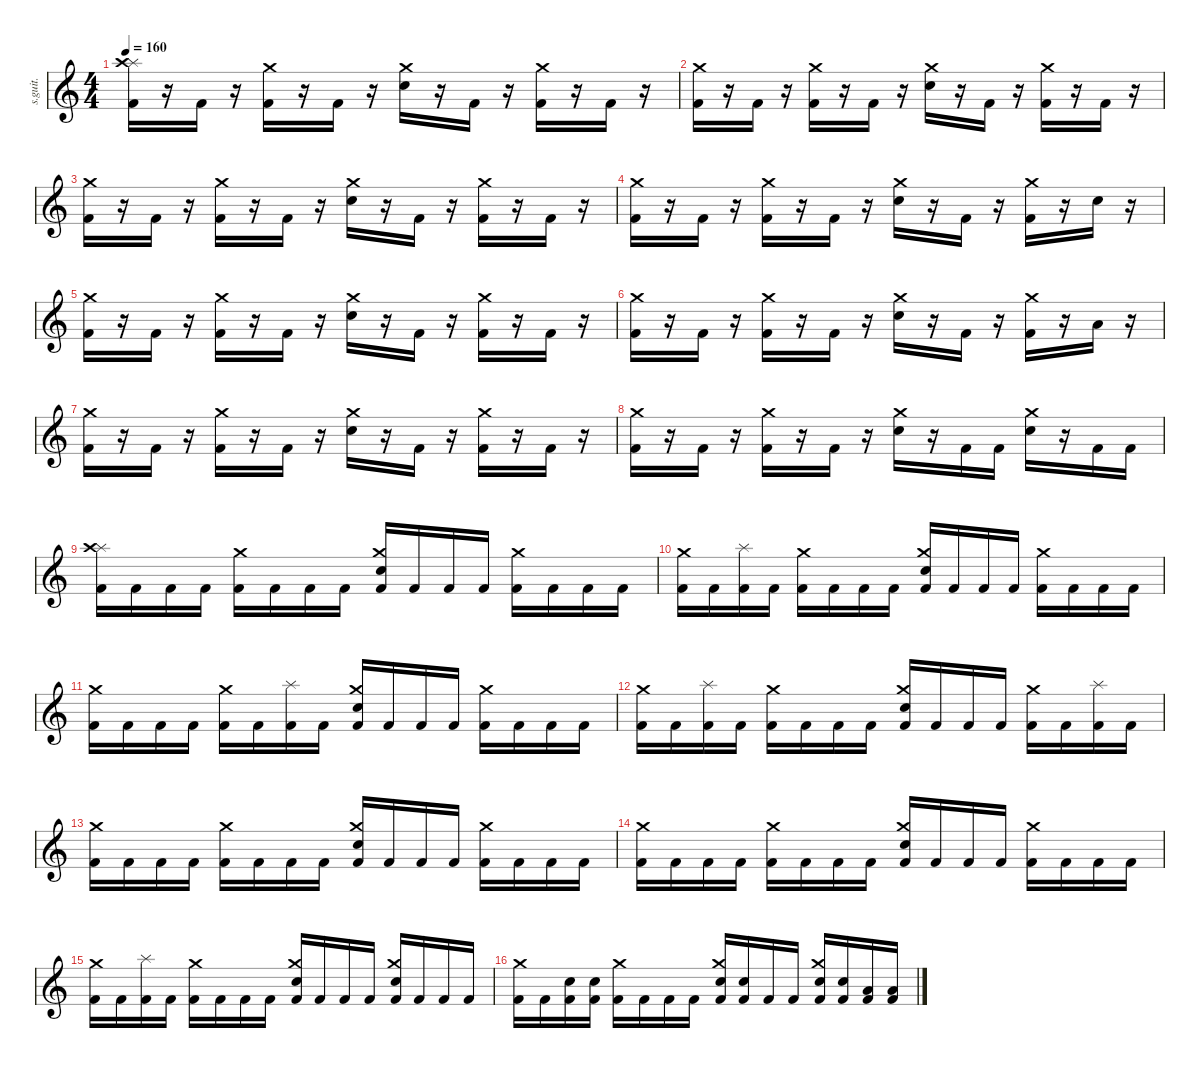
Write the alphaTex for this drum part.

\defaultSystemsLayout 4
\hideDynamics
\bracketExtendMode nobrackets
\track ("Drumkit" "s.guit.") {instrument percussion}
\staff {score}
\articulation defaults
\ts (4 4)
\tempo 160
\clef g2
\ks c
("Splash (hit)" "Crash high (hit)" "Kick (hit) 2").16{lyrics (0 "") lyrics (1 "") lyrics (2 "") lyrics (3 "") lyrics (4 "") dy f} r.16 "Kick (hit) 2".16{lyrics (0 "") lyrics (1 "") lyrics (2 "") lyrics (3 "") lyrics (4 "")} r.16 ("Crash medium (hit)" "Kick (hit) 2").16{lyrics (0 "") lyrics (1 "") lyrics (2 "") lyrics (3 "") lyrics (4 "")} r.16 "Kick (hit) 2".16{lyrics (0 "") lyrics (1 "") lyrics (2 "") lyrics (3 "") lyrics (4 "")} r.16 ("Crash medium (hit)" "Electric Snare (hit)").16{lyrics (0 "") lyrics (1 "") lyrics (2 "") lyrics (3 "") lyrics (4 "")} r.16 "Kick (hit) 2".16{lyrics (0 "") lyrics (1 "") lyrics (2 "") lyrics (3 "") lyrics (4 "")} r.16 ("Crash medium (hit)" "Kick (hit) 2").16{lyrics (0 "") lyrics (1 "") lyrics (2 "") lyrics (3 "") lyrics (4 "")} r.16 "Kick (hit) 2".16{lyrics (0 "") lyrics (1 "") lyrics (2 "") lyrics (3 "") lyrics (4 "")} r.16 |
("Crash medium (hit)" "Kick (hit) 2").16{lyrics (0 "") lyrics (1 "") lyrics (2 "") lyrics (3 "") lyrics (4 "")} r.16 "Kick (hit) 2".16{lyrics (0 "") lyrics (1 "") lyrics (2 "") lyrics (3 "") lyrics (4 "")} r.16 ("Crash medium (hit)" "Kick (hit) 2").16{lyrics (0 "") lyrics (1 "") lyrics (2 "") lyrics (3 "") lyrics (4 "")} r.16 "Kick (hit) 2".16{lyrics (0 "") lyrics (1 "") lyrics (2 "") lyrics (3 "") lyrics (4 "")} r.16 ("Crash medium (hit)" "Electric Snare (hit)").16{lyrics (0 "") lyrics (1 "") lyrics (2 "") lyrics (3 "") lyrics (4 "")} r.16 "Kick (hit) 2".16{lyrics (0 "") lyrics (1 "") lyrics (2 "") lyrics (3 "") lyrics (4 "")} r.16 ("Crash medium (hit)" "Kick (hit) 2").16{lyrics (0 "") lyrics (1 "") lyrics (2 "") lyrics (3 "") lyrics (4 "")} r.16 "Kick (hit) 2".16{lyrics (0 "") lyrics (1 "") lyrics (2 "") lyrics (3 "") lyrics (4 "")} r.16 |
("Crash medium (hit)" "Kick (hit) 2").16{lyrics (0 "") lyrics (1 "") lyrics (2 "") lyrics (3 "") lyrics (4 "")} r.16 "Kick (hit) 2".16{lyrics (0 "") lyrics (1 "") lyrics (2 "") lyrics (3 "") lyrics (4 "")} r.16 ("Crash medium (hit)" "Kick (hit) 2").16{lyrics (0 "") lyrics (1 "") lyrics (2 "") lyrics (3 "") lyrics (4 "")} r.16 "Kick (hit) 2".16{lyrics (0 "") lyrics (1 "") lyrics (2 "") lyrics (3 "") lyrics (4 "")} r.16 ("Crash medium (hit)" "Electric Snare (hit)").16{lyrics (0 "") lyrics (1 "") lyrics (2 "") lyrics (3 "") lyrics (4 "")} r.16 "Kick (hit) 2".16{lyrics (0 "") lyrics (1 "") lyrics (2 "") lyrics (3 "") lyrics (4 "")} r.16 ("Crash medium (hit)" "Kick (hit) 2").16{lyrics (0 "") lyrics (1 "") lyrics (2 "") lyrics (3 "") lyrics (4 "")} r.16 "Kick (hit) 2".16{lyrics (0 "") lyrics (1 "") lyrics (2 "") lyrics (3 "") lyrics (4 "")} r.16 |
("Crash medium (hit)" "Kick (hit) 2").16{lyrics (0 "") lyrics (1 "") lyrics (2 "") lyrics (3 "") lyrics (4 "")} r.16 "Kick (hit) 2".16{lyrics (0 "") lyrics (1 "") lyrics (2 "") lyrics (3 "") lyrics (4 "")} r.16 ("Crash medium (hit)" "Kick (hit) 2").16{lyrics (0 "") lyrics (1 "") lyrics (2 "") lyrics (3 "") lyrics (4 "")} r.16 "Kick (hit) 2".16{lyrics (0 "") lyrics (1 "") lyrics (2 "") lyrics (3 "") lyrics (4 "")} r.16 ("Crash medium (hit)" "Electric Snare (hit)").16{lyrics (0 "") lyrics (1 "") lyrics (2 "") lyrics (3 "") lyrics (4 "")} r.16 "Kick (hit) 2".16{lyrics (0 "") lyrics (1 "") lyrics (2 "") lyrics (3 "") lyrics (4 "")} r.16 ("Crash medium (hit)" "Kick (hit) 2").16{lyrics (0 "") lyrics (1 "") lyrics (2 "") lyrics (3 "") lyrics (4 "")} r.16 "Electric Snare (hit)".16{lyrics (0 "") lyrics (1 "") lyrics (2 "") lyrics (3 "") lyrics (4 "")} r.16 |
("Crash medium (hit)" "Kick (hit) 2").16{lyrics (0 "") lyrics (1 "") lyrics (2 "") lyrics (3 "") lyrics (4 "")} r.16 "Kick (hit) 2".16{lyrics (0 "") lyrics (1 "") lyrics (2 "") lyrics (3 "") lyrics (4 "")} r.16 ("Crash medium (hit)" "Kick (hit) 2").16{lyrics (0 "") lyrics (1 "") lyrics (2 "") lyrics (3 "") lyrics (4 "")} r.16 "Kick (hit) 2".16{lyrics (0 "") lyrics (1 "") lyrics (2 "") lyrics (3 "") lyrics (4 "")} r.16 ("Crash medium (hit)" "Electric Snare (hit)").16{lyrics (0 "") lyrics (1 "") lyrics (2 "") lyrics (3 "") lyrics (4 "")} r.16 "Kick (hit) 2".16{lyrics (0 "") lyrics (1 "") lyrics (2 "") lyrics (3 "") lyrics (4 "")} r.16 ("Crash medium (hit)" "Kick (hit) 2").16{lyrics (0 "") lyrics (1 "") lyrics (2 "") lyrics (3 "") lyrics (4 "")} r.16 "Kick (hit) 2".16{lyrics (0 "") lyrics (1 "") lyrics (2 "") lyrics (3 "") lyrics (4 "")} r.16 |
("Crash medium (hit)" "Kick (hit) 2").16{lyrics (0 "") lyrics (1 "") lyrics (2 "") lyrics (3 "") lyrics (4 "")} r.16 "Kick (hit) 2".16{lyrics (0 "") lyrics (1 "") lyrics (2 "") lyrics (3 "") lyrics (4 "")} r.16 ("Crash medium (hit)" "Kick (hit) 2").16{lyrics (0 "") lyrics (1 "") lyrics (2 "") lyrics (3 "") lyrics (4 "")} r.16 "Kick (hit) 2".16{lyrics (0 "") lyrics (1 "") lyrics (2 "") lyrics (3 "") lyrics (4 "")} r.16 ("Crash medium (hit)" "Electric Snare (hit)").16{lyrics (0 "") lyrics (1 "") lyrics (2 "") lyrics (3 "") lyrics (4 "")} r.16 "Kick (hit) 2".16{lyrics (0 "") lyrics (1 "") lyrics (2 "") lyrics (3 "") lyrics (4 "")} r.16 ("Crash medium (hit)" "Kick (hit) 2").16{lyrics (0 "") lyrics (1 "") lyrics (2 "") lyrics (3 "") lyrics (4 "")} r.16 "Low Floor Tom (hit)".16{lyrics (0 "") lyrics (1 "") lyrics (2 "") lyrics (3 "") lyrics (4 "")} r.16 |
("Crash medium (hit)" "Kick (hit) 2").16{lyrics (0 "") lyrics (1 "") lyrics (2 "") lyrics (3 "") lyrics (4 "")} r.16 "Kick (hit) 2".16{lyrics (0 "") lyrics (1 "") lyrics (2 "") lyrics (3 "") lyrics (4 "")} r.16 ("Crash medium (hit)" "Kick (hit) 2").16{lyrics (0 "") lyrics (1 "") lyrics (2 "") lyrics (3 "") lyrics (4 "")} r.16 "Kick (hit) 2".16{lyrics (0 "") lyrics (1 "") lyrics (2 "") lyrics (3 "") lyrics (4 "")} r.16 ("Crash medium (hit)" "Electric Snare (hit)").16{lyrics (0 "") lyrics (1 "") lyrics (2 "") lyrics (3 "") lyrics (4 "")} r.16 "Kick (hit) 2".16{lyrics (0 "") lyrics (1 "") lyrics (2 "") lyrics (3 "") lyrics (4 "")} r.16 ("Crash medium (hit)" "Kick (hit) 2").16{lyrics (0 "") lyrics (1 "") lyrics (2 "") lyrics (3 "") lyrics (4 "")} r.16 "Kick (hit) 2".16{lyrics (0 "") lyrics (1 "") lyrics (2 "") lyrics (3 "") lyrics (4 "")} r.16 |
("Crash medium (hit)" "Kick (hit) 2").16{lyrics (0 "") lyrics (1 "") lyrics (2 "") lyrics (3 "") lyrics (4 "")} r.16 "Kick (hit) 2".16{lyrics (0 "") lyrics (1 "") lyrics (2 "") lyrics (3 "") lyrics (4 "")} r.16 ("Crash medium (hit)" "Kick (hit) 2").16{lyrics (0 "") lyrics (1 "") lyrics (2 "") lyrics (3 "") lyrics (4 "")} r.16 "Kick (hit) 2".16{lyrics (0 "") lyrics (1 "") lyrics (2 "") lyrics (3 "") lyrics (4 "")} r.16 ("Crash medium (hit)" "Electric Snare (hit)").16{lyrics (0 "") lyrics (1 "") lyrics (2 "") lyrics (3 "") lyrics (4 "")} r.16 "Kick (hit) 2".16{lyrics (0 "") lyrics (1 "") lyrics (2 "") lyrics (3 "") lyrics (4 "")} "Kick (hit) 2".16{lyrics (0 "") lyrics (1 "") lyrics (2 "") lyrics (3 "") lyrics (4 "")} ("Crash medium (hit)" "Electric Snare (hit)").16{lyrics (0 "") lyrics (1 "") lyrics (2 "") lyrics (3 "") lyrics (4 "")} r.16 "Kick (hit) 2".16{lyrics (0 "") lyrics (1 "") lyrics (2 "") lyrics (3 "") lyrics (4 "")} "Kick (hit) 2".16{lyrics (0 "") lyrics (1 "") lyrics (2 "") lyrics (3 "") lyrics (4 "")} |
("Splash (hit)" "Crash high (hit)" "Kick (hit) 2").16{lyrics (0 "") lyrics (1 "") lyrics (2 "") lyrics (3 "") lyrics (4 "")} "Kick (hit) 2".16{lyrics (0 "") lyrics (1 "") lyrics (2 "") lyrics (3 "") lyrics (4 "")} "Kick (hit) 2".16{lyrics (0 "") lyrics (1 "") lyrics (2 "") lyrics (3 "") lyrics (4 "")} "Kick (hit) 2".16{lyrics (0 "") lyrics (1 "") lyrics (2 "") lyrics (3 "") lyrics (4 "")} ("Crash medium (hit)" "Kick (hit) 2").16{lyrics (0 "") lyrics (1 "") lyrics (2 "") lyrics (3 "") lyrics (4 "")} "Kick (hit) 2".16{lyrics (0 "") lyrics (1 "") lyrics (2 "") lyrics (3 "") lyrics (4 "")} "Kick (hit) 2".16{lyrics (0 "") lyrics (1 "") lyrics (2 "") lyrics (3 "") lyrics (4 "")} "Kick (hit) 2".16{lyrics (0 "") lyrics (1 "") lyrics (2 "") lyrics (3 "") lyrics (4 "")} ("Crash medium (hit)" "Electric Snare (hit)" "Kick (hit) 2").16{lyrics (0 "") lyrics (1 "") lyrics (2 "") lyrics (3 "") lyrics (4 "")} "Kick (hit) 2".16{lyrics (0 "") lyrics (1 "") lyrics (2 "") lyrics (3 "") lyrics (4 "")} "Kick (hit) 2".16{lyrics (0 "") lyrics (1 "") lyrics (2 "") lyrics (3 "") lyrics (4 "")} "Kick (hit) 2".16{lyrics (0 "") lyrics (1 "") lyrics (2 "") lyrics (3 "") lyrics (4 "")} ("Crash medium (hit)" "Kick (hit) 2").16{lyrics (0 "") lyrics (1 "") lyrics (2 "") lyrics (3 "") lyrics (4 "")} "Kick (hit) 2".16{lyrics (0 "") lyrics (1 "") lyrics (2 "") lyrics (3 "") lyrics (4 "")} "Kick (hit) 2".16{lyrics (0 "") lyrics (1 "") lyrics (2 "") lyrics (3 "") lyrics (4 "")} "Kick (hit) 2".16{lyrics (0 "") lyrics (1 "") lyrics (2 "") lyrics (3 "") lyrics (4 "")} |
("Crash medium (hit)" "Kick (hit) 2").16{lyrics (0 "") lyrics (1 "") lyrics (2 "") lyrics (3 "") lyrics (4 "")} "Kick (hit) 2".16{lyrics (0 "") lyrics (1 "") lyrics (2 "") lyrics (3 "") lyrics (4 "")} ("Splash (hit)" "Kick (hit) 2").16{lyrics (0 "") lyrics (1 "") lyrics (2 "") lyrics (3 "") lyrics (4 "")} "Kick (hit) 2".16{lyrics (0 "") lyrics (1 "") lyrics (2 "") lyrics (3 "") lyrics (4 "")} ("Crash medium (hit)" "Kick (hit) 2").16{lyrics (0 "") lyrics (1 "") lyrics (2 "") lyrics (3 "") lyrics (4 "")} "Kick (hit) 2".16{lyrics (0 "") lyrics (1 "") lyrics (2 "") lyrics (3 "") lyrics (4 "")} "Kick (hit) 2".16{lyrics (0 "") lyrics (1 "") lyrics (2 "") lyrics (3 "") lyrics (4 "")} "Kick (hit) 2".16{lyrics (0 "") lyrics (1 "") lyrics (2 "") lyrics (3 "") lyrics (4 "")} ("Crash medium (hit)" "Electric Snare (hit)" "Kick (hit) 2").16{lyrics (0 "") lyrics (1 "") lyrics (2 "") lyrics (3 "") lyrics (4 "")} "Kick (hit) 2".16{lyrics (0 "") lyrics (1 "") lyrics (2 "") lyrics (3 "") lyrics (4 "")} "Kick (hit) 2".16{lyrics (0 "") lyrics (1 "") lyrics (2 "") lyrics (3 "") lyrics (4 "")} "Kick (hit) 2".16{lyrics (0 "") lyrics (1 "") lyrics (2 "") lyrics (3 "") lyrics (4 "")} ("Crash medium (hit)" "Kick (hit) 2").16{lyrics (0 "") lyrics (1 "") lyrics (2 "") lyrics (3 "") lyrics (4 "")} "Kick (hit) 2".16{lyrics (0 "") lyrics (1 "") lyrics (2 "") lyrics (3 "") lyrics (4 "")} "Kick (hit) 2".16{lyrics (0 "") lyrics (1 "") lyrics (2 "") lyrics (3 "") lyrics (4 "")} "Kick (hit) 2".16{lyrics (0 "") lyrics (1 "") lyrics (2 "") lyrics (3 "") lyrics (4 "")} |
("Crash medium (hit)" "Kick (hit) 2").16{lyrics (0 "") lyrics (1 "") lyrics (2 "") lyrics (3 "") lyrics (4 "")} "Kick (hit) 2".16{lyrics (0 "") lyrics (1 "") lyrics (2 "") lyrics (3 "") lyrics (4 "")} "Kick (hit) 2".16{lyrics (0 "") lyrics (1 "") lyrics (2 "") lyrics (3 "") lyrics (4 "")} "Kick (hit) 2".16{lyrics (0 "") lyrics (1 "") lyrics (2 "") lyrics (3 "") lyrics (4 "")} ("Crash medium (hit)" "Kick (hit) 2").16{lyrics (0 "") lyrics (1 "") lyrics (2 "") lyrics (3 "") lyrics (4 "")} "Kick (hit) 2".16{lyrics (0 "") lyrics (1 "") lyrics (2 "") lyrics (3 "") lyrics (4 "")} ("Splash (hit)" "Kick (hit) 2").16{lyrics (0 "") lyrics (1 "") lyrics (2 "") lyrics (3 "") lyrics (4 "")} "Kick (hit) 2".16{lyrics (0 "") lyrics (1 "") lyrics (2 "") lyrics (3 "") lyrics (4 "")} ("Crash medium (hit)" "Electric Snare (hit)" "Kick (hit) 2").16{lyrics (0 "") lyrics (1 "") lyrics (2 "") lyrics (3 "") lyrics (4 "")} "Kick (hit) 2".16{lyrics (0 "") lyrics (1 "") lyrics (2 "") lyrics (3 "") lyrics (4 "")} "Kick (hit) 2".16{lyrics (0 "") lyrics (1 "") lyrics (2 "") lyrics (3 "") lyrics (4 "")} "Kick (hit) 2".16{lyrics (0 "") lyrics (1 "") lyrics (2 "") lyrics (3 "") lyrics (4 "")} ("Crash medium (hit)" "Kick (hit) 2").16{lyrics (0 "") lyrics (1 "") lyrics (2 "") lyrics (3 "") lyrics (4 "")} "Kick (hit) 2".16{lyrics (0 "") lyrics (1 "") lyrics (2 "") lyrics (3 "") lyrics (4 "")} "Kick (hit) 2".16{lyrics (0 "") lyrics (1 "") lyrics (2 "") lyrics (3 "") lyrics (4 "")} "Kick (hit) 2".16{lyrics (0 "") lyrics (1 "") lyrics (2 "") lyrics (3 "") lyrics (4 "")} |
("Crash medium (hit)" "Kick (hit) 2").16{lyrics (0 "") lyrics (1 "") lyrics (2 "") lyrics (3 "") lyrics (4 "")} "Kick (hit) 2".16{lyrics (0 "") lyrics (1 "") lyrics (2 "") lyrics (3 "") lyrics (4 "")} ("Splash (hit)" "Kick (hit) 2").16{lyrics (0 "") lyrics (1 "") lyrics (2 "") lyrics (3 "") lyrics (4 "")} "Kick (hit) 2".16{lyrics (0 "") lyrics (1 "") lyrics (2 "") lyrics (3 "") lyrics (4 "")} ("Crash medium (hit)" "Kick (hit) 2").16{lyrics (0 "") lyrics (1 "") lyrics (2 "") lyrics (3 "") lyrics (4 "")} "Kick (hit) 2".16{lyrics (0 "") lyrics (1 "") lyrics (2 "") lyrics (3 "") lyrics (4 "")} "Kick (hit) 2".16{lyrics (0 "") lyrics (1 "") lyrics (2 "") lyrics (3 "") lyrics (4 "")} "Kick (hit) 2".16{lyrics (0 "") lyrics (1 "") lyrics (2 "") lyrics (3 "") lyrics (4 "")} ("Crash medium (hit)" "Electric Snare (hit)" "Kick (hit) 2").16{lyrics (0 "") lyrics (1 "") lyrics (2 "") lyrics (3 "") lyrics (4 "")} "Kick (hit) 2".16{lyrics (0 "") lyrics (1 "") lyrics (2 "") lyrics (3 "") lyrics (4 "")} "Kick (hit) 2".16{lyrics (0 "") lyrics (1 "") lyrics (2 "") lyrics (3 "") lyrics (4 "")} "Kick (hit) 2".16{lyrics (0 "") lyrics (1 "") lyrics (2 "") lyrics (3 "") lyrics (4 "")} ("Crash medium (hit)" "Kick (hit) 2").16{lyrics (0 "") lyrics (1 "") lyrics (2 "") lyrics (3 "") lyrics (4 "")} "Kick (hit) 2".16{lyrics (0 "") lyrics (1 "") lyrics (2 "") lyrics (3 "") lyrics (4 "")} ("Splash (hit)" "Kick (hit) 2").16{lyrics (0 "") lyrics (1 "") lyrics (2 "") lyrics (3 "") lyrics (4 "")} "Kick (hit) 2".16{lyrics (0 "") lyrics (1 "") lyrics (2 "") lyrics (3 "") lyrics (4 "")} |
("Crash medium (hit)" "Kick (hit) 2").16{lyrics (0 "") lyrics (1 "") lyrics (2 "") lyrics (3 "") lyrics (4 "")} "Kick (hit) 2".16{lyrics (0 "") lyrics (1 "") lyrics (2 "") lyrics (3 "") lyrics (4 "")} "Kick (hit) 2".16{lyrics (0 "") lyrics (1 "") lyrics (2 "") lyrics (3 "") lyrics (4 "")} "Kick (hit) 2".16{lyrics (0 "") lyrics (1 "") lyrics (2 "") lyrics (3 "") lyrics (4 "")} ("Crash medium (hit)" "Kick (hit) 2").16{lyrics (0 "") lyrics (1 "") lyrics (2 "") lyrics (3 "") lyrics (4 "")} "Kick (hit) 2".16{lyrics (0 "") lyrics (1 "") lyrics (2 "") lyrics (3 "") lyrics (4 "")} "Kick (hit) 2".16{lyrics (0 "") lyrics (1 "") lyrics (2 "") lyrics (3 "") lyrics (4 "")} "Kick (hit) 2".16{lyrics (0 "") lyrics (1 "") lyrics (2 "") lyrics (3 "") lyrics (4 "")} ("Crash medium (hit)" "Electric Snare (hit)" "Kick (hit) 2").16{lyrics (0 "") lyrics (1 "") lyrics (2 "") lyrics (3 "") lyrics (4 "")} "Kick (hit) 2".16{lyrics (0 "") lyrics (1 "") lyrics (2 "") lyrics (3 "") lyrics (4 "")} "Kick (hit) 2".16{lyrics (0 "") lyrics (1 "") lyrics (2 "") lyrics (3 "") lyrics (4 "")} "Kick (hit) 2".16{lyrics (0 "") lyrics (1 "") lyrics (2 "") lyrics (3 "") lyrics (4 "")} ("Crash medium (hit)" "Kick (hit) 2").16{lyrics (0 "") lyrics (1 "") lyrics (2 "") lyrics (3 "") lyrics (4 "")} "Kick (hit) 2".16{lyrics (0 "") lyrics (1 "") lyrics (2 "") lyrics (3 "") lyrics (4 "")} "Kick (hit) 2".16{lyrics (0 "") lyrics (1 "") lyrics (2 "") lyrics (3 "") lyrics (4 "")} "Kick (hit) 2".16{lyrics (0 "") lyrics (1 "") lyrics (2 "") lyrics (3 "") lyrics (4 "")} |
("Crash medium (hit)" "Kick (hit) 2").16{lyrics (0 "") lyrics (1 "") lyrics (2 "") lyrics (3 "") lyrics (4 "")} "Kick (hit) 2".16{lyrics (0 "") lyrics (1 "") lyrics (2 "") lyrics (3 "") lyrics (4 "")} "Kick (hit) 2".16{lyrics (0 "") lyrics (1 "") lyrics (2 "") lyrics (3 "") lyrics (4 "")} "Kick (hit) 2".16{lyrics (0 "") lyrics (1 "") lyrics (2 "") lyrics (3 "") lyrics (4 "")} ("Crash medium (hit)" "Kick (hit) 2").16{lyrics (0 "") lyrics (1 "") lyrics (2 "") lyrics (3 "") lyrics (4 "")} "Kick (hit) 2".16{lyrics (0 "") lyrics (1 "") lyrics (2 "") lyrics (3 "") lyrics (4 "")} "Kick (hit) 2".16{lyrics (0 "") lyrics (1 "") lyrics (2 "") lyrics (3 "") lyrics (4 "")} "Kick (hit) 2".16{lyrics (0 "") lyrics (1 "") lyrics (2 "") lyrics (3 "") lyrics (4 "")} ("Crash medium (hit)" "Electric Snare (hit)" "Kick (hit) 2").16{lyrics (0 "") lyrics (1 "") lyrics (2 "") lyrics (3 "") lyrics (4 "")} "Kick (hit) 2".16{lyrics (0 "") lyrics (1 "") lyrics (2 "") lyrics (3 "") lyrics (4 "")} "Kick (hit) 2".16{lyrics (0 "") lyrics (1 "") lyrics (2 "") lyrics (3 "") lyrics (4 "")} "Kick (hit) 2".16{lyrics (0 "") lyrics (1 "") lyrics (2 "") lyrics (3 "") lyrics (4 "")} ("Crash medium (hit)" "Kick (hit) 2").16{lyrics (0 "") lyrics (1 "") lyrics (2 "") lyrics (3 "") lyrics (4 "")} "Kick (hit) 2".16{lyrics (0 "") lyrics (1 "") lyrics (2 "") lyrics (3 "") lyrics (4 "")} "Kick (hit) 2".16{lyrics (0 "") lyrics (1 "") lyrics (2 "") lyrics (3 "") lyrics (4 "")} "Kick (hit) 2".16{lyrics (0 "") lyrics (1 "") lyrics (2 "") lyrics (3 "") lyrics (4 "")} |
("Crash medium (hit)" "Kick (hit) 2").16{lyrics (0 "") lyrics (1 "") lyrics (2 "") lyrics (3 "") lyrics (4 "")} "Kick (hit) 2".16{lyrics (0 "") lyrics (1 "") lyrics (2 "") lyrics (3 "") lyrics (4 "")} ("Splash (hit)" "Kick (hit) 2").16{lyrics (0 "") lyrics (1 "") lyrics (2 "") lyrics (3 "") lyrics (4 "")} "Kick (hit) 2".16{lyrics (0 "") lyrics (1 "") lyrics (2 "") lyrics (3 "") lyrics (4 "")} ("Crash medium (hit)" "Kick (hit) 2").16{lyrics (0 "") lyrics (1 "") lyrics (2 "") lyrics (3 "") lyrics (4 "")} "Kick (hit) 2".16{lyrics (0 "") lyrics (1 "") lyrics (2 "") lyrics (3 "") lyrics (4 "")} "Kick (hit) 2".16{lyrics (0 "") lyrics (1 "") lyrics (2 "") lyrics (3 "") lyrics (4 "")} "Kick (hit) 2".16{lyrics (0 "") lyrics (1 "") lyrics (2 "") lyrics (3 "") lyrics (4 "")} ("Crash medium (hit)" "Electric Snare (hit)" "Kick (hit) 2").16{lyrics (0 "") lyrics (1 "") lyrics (2 "") lyrics (3 "") lyrics (4 "")} "Kick (hit) 2".16{lyrics (0 "") lyrics (1 "") lyrics (2 "") lyrics (3 "") lyrics (4 "")} "Kick (hit) 2".16{lyrics (0 "") lyrics (1 "") lyrics (2 "") lyrics (3 "") lyrics (4 "")} "Kick (hit) 2".16{lyrics (0 "") lyrics (1 "") lyrics (2 "") lyrics (3 "") lyrics (4 "")} ("Crash medium (hit)" "Electric Snare (hit)" "Kick (hit) 2").16{lyrics (0 "") lyrics (1 "") lyrics (2 "") lyrics (3 "") lyrics (4 "")} "Kick (hit) 2".16{lyrics (0 "") lyrics (1 "") lyrics (2 "") lyrics (3 "") lyrics (4 "")} "Kick (hit) 2".16{lyrics (0 "") lyrics (1 "") lyrics (2 "") lyrics (3 "") lyrics (4 "")} "Kick (hit) 2".16{lyrics (0 "") lyrics (1 "") lyrics (2 "") lyrics (3 "") lyrics (4 "")} |
("Crash medium (hit)" "Kick (hit) 2").16{lyrics (0 "") lyrics (1 "") lyrics (2 "") lyrics (3 "") lyrics (4 "")} "Kick (hit) 2".16{lyrics (0 "") lyrics (1 "") lyrics (2 "") lyrics (3 "") lyrics (4 "")} ("Electric Snare (hit)" "Kick (hit) 2").16{lyrics (0 "") lyrics (1 "") lyrics (2 "") lyrics (3 "") lyrics (4 "")} ("Electric Snare (hit)" "Kick (hit) 2").16{lyrics (0 "") lyrics (1 "") lyrics (2 "") lyrics (3 "") lyrics (4 "")} ("Crash medium (hit)" "Kick (hit) 2").16{lyrics (0 "") lyrics (1 "") lyrics (2 "") lyrics (3 "") lyrics (4 "")} "Kick (hit) 2".16{lyrics (0 "") lyrics (1 "") lyrics (2 "") lyrics (3 "") lyrics (4 "")} "Kick (hit) 2".16{lyrics (0 "") lyrics (1 "") lyrics (2 "") lyrics (3 "") lyrics (4 "")} "Kick (hit) 2".16{lyrics (0 "") lyrics (1 "") lyrics (2 "") lyrics (3 "") lyrics (4 "")} ("Crash medium (hit)" "Electric Snare (hit)" "Kick (hit) 2").16{lyrics (0 "") lyrics (1 "") lyrics (2 "") lyrics (3 "") lyrics (4 "")} ("Electric Snare (hit)" "Kick (hit) 2").16{lyrics (0 "") lyrics (1 "") lyrics (2 "") lyrics (3 "") lyrics (4 "")} "Kick (hit) 2".16{lyrics (0 "") lyrics (1 "") lyrics (2 "") lyrics (3 "") lyrics (4 "")} "Kick (hit) 2".16{lyrics (0 "") lyrics (1 "") lyrics (2 "") lyrics (3 "") lyrics (4 "")} ("Crash medium (hit)" "Electric Snare (hit)" "Kick (hit) 2").16{lyrics (0 "") lyrics (1 "") lyrics (2 "") lyrics (3 "") lyrics (4 "")} ("Electric Snare (hit)" "Kick (hit) 2").16{lyrics (0 "") lyrics (1 "") lyrics (2 "") lyrics (3 "") lyrics (4 "")} ("Low Tom (hit)" "Kick (hit) 2").16{lyrics (0 "") lyrics (1 "") lyrics (2 "") lyrics (3 "") lyrics (4 "")} ("Low Floor Tom (hit)" "Kick (hit) 2").16{lyrics (0 "") lyrics (1 "") lyrics (2 "") lyrics (3 "") lyrics (4 "")}
